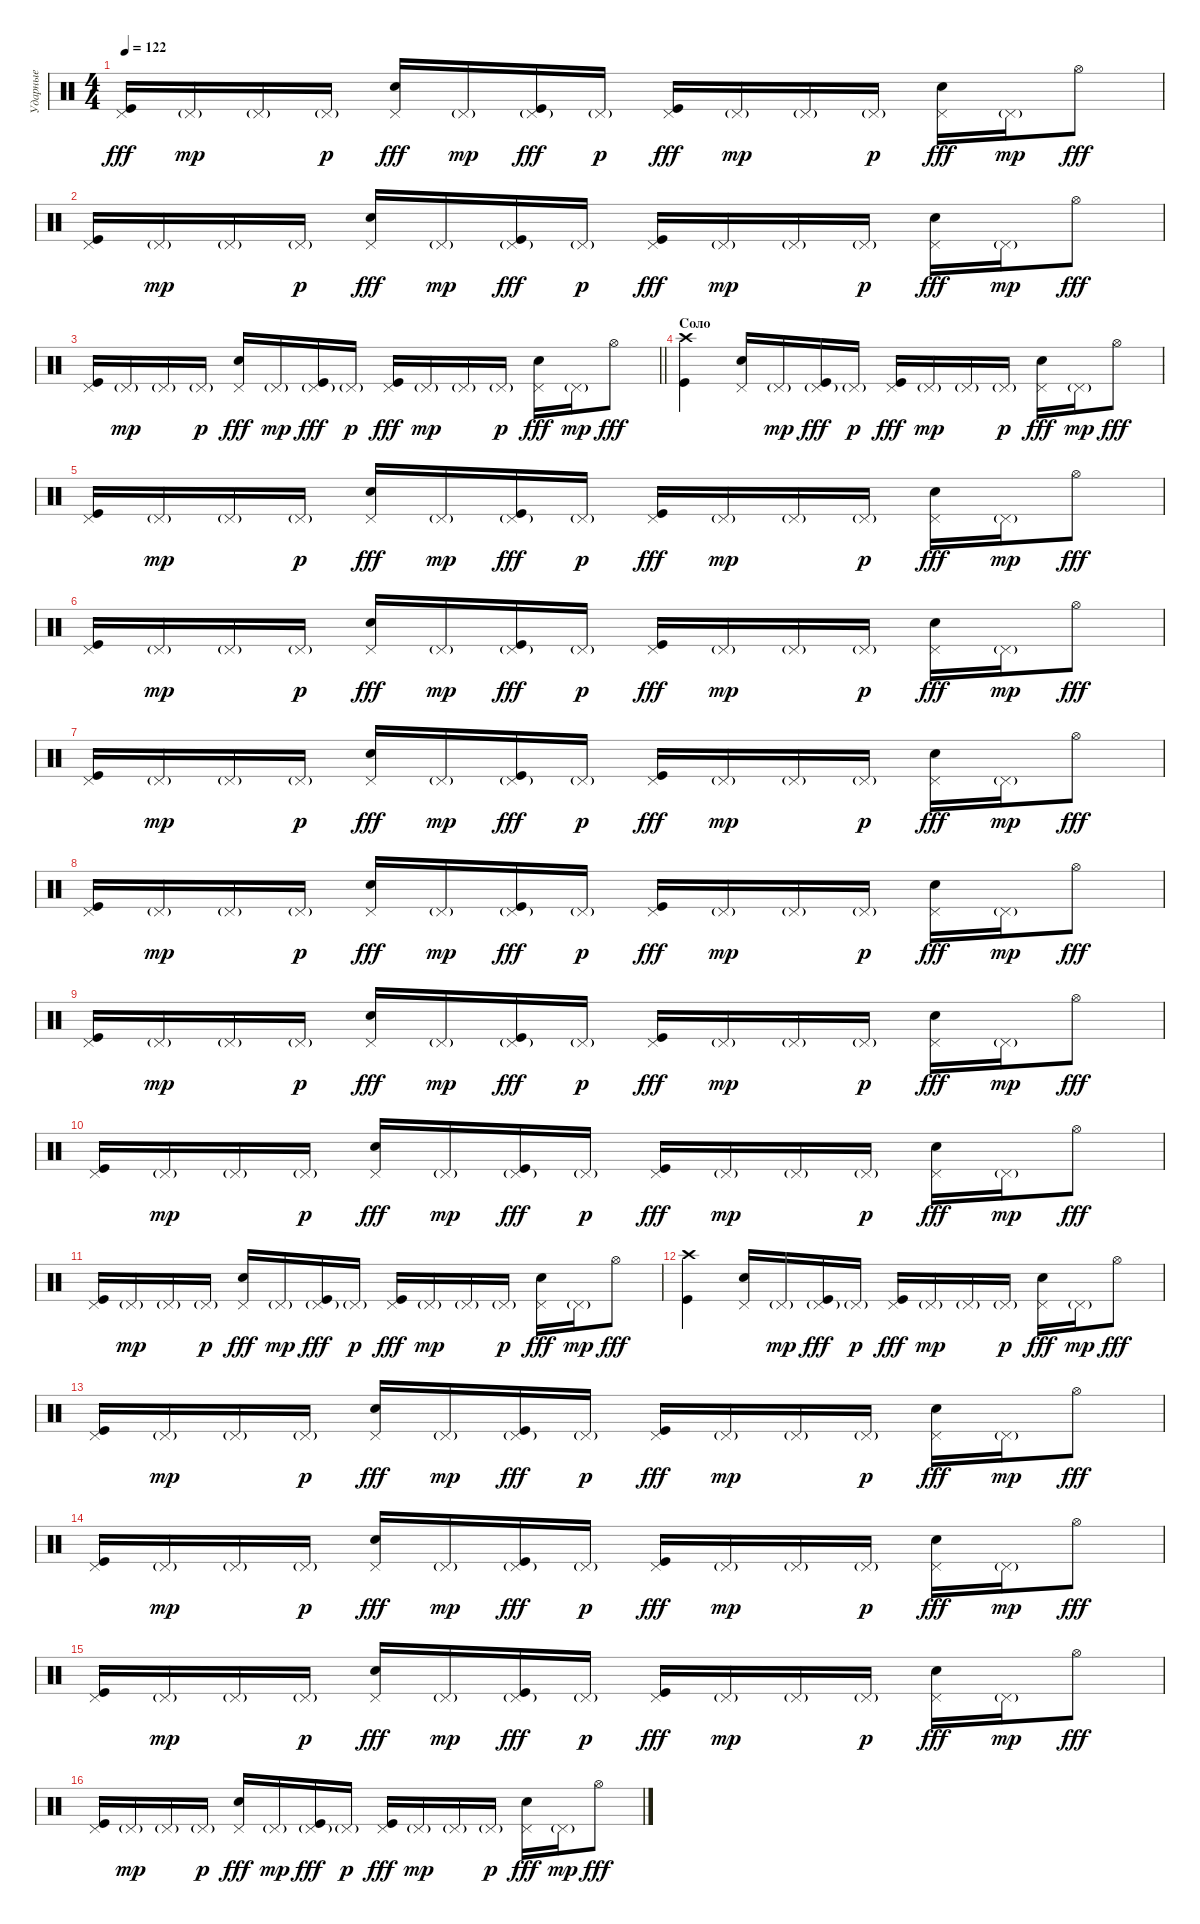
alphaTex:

\track ("Ударные" "Ударные") {instrument percussion}
\staff {score}
\articulation defaults
\ts (4 4)
\tempo 122
\clef neutral
\ks c
("Pedal Hi-Hat (hit)" "Kick (hit)").16{dy fff} "Pedal Hi-Hat (hit)"{g}.16{dy mp} "Pedal Hi-Hat (hit)"{g}.16 "Pedal Hi-Hat (hit)"{g}.16{dy p} ("Pedal Hi-Hat (hit)" "Electric Snare (hit)").16{dy fff} "Pedal Hi-Hat (hit)"{g}.16{dy mp} ("Pedal Hi-Hat (hit)"{g} "Kick (hit)").16{dy fff} "Pedal Hi-Hat (hit)"{g}.16{dy p} ("Pedal Hi-Hat (hit)" "Kick (hit)").16{dy fff} "Pedal Hi-Hat (hit)"{g}.16{dy mp} "Pedal Hi-Hat (hit)"{g}.16 "Pedal Hi-Hat (hit)"{g}.16{dy p} ("Pedal Hi-Hat (hit)" "Electric Snare (hit)").16{dy fff} "Pedal Hi-Hat (hit)"{g}.16{dy mp} "Hi-Hat (open)".8{dy fff} |
("Pedal Hi-Hat (hit)" "Kick (hit)").16 "Pedal Hi-Hat (hit)"{g}.16{dy mp} "Pedal Hi-Hat (hit)"{g}.16 "Pedal Hi-Hat (hit)"{g}.16{dy p} ("Pedal Hi-Hat (hit)" "Electric Snare (hit)").16{dy fff} "Pedal Hi-Hat (hit)"{g}.16{dy mp} ("Pedal Hi-Hat (hit)"{g} "Kick (hit)").16{dy fff} "Pedal Hi-Hat (hit)"{g}.16{dy p} ("Pedal Hi-Hat (hit)" "Kick (hit)").16{dy fff} "Pedal Hi-Hat (hit)"{g}.16{dy mp} "Pedal Hi-Hat (hit)"{g}.16 "Pedal Hi-Hat (hit)"{g}.16{dy p} ("Pedal Hi-Hat (hit)" "Electric Snare (hit)").16{dy fff} "Pedal Hi-Hat (hit)"{g}.16{dy mp} "Hi-Hat (open)".8{dy fff} |
\barLineRight lightlight
("Pedal Hi-Hat (hit)" "Kick (hit)").16 "Pedal Hi-Hat (hit)"{g}.16{dy mp} "Pedal Hi-Hat (hit)"{g}.16 "Pedal Hi-Hat (hit)"{g}.16{dy p} ("Pedal Hi-Hat (hit)" "Electric Snare (hit)").16{dy fff} "Pedal Hi-Hat (hit)"{g}.16{dy mp} ("Pedal Hi-Hat (hit)"{g} "Kick (hit)").16{dy fff} "Pedal Hi-Hat (hit)"{g}.16{dy p} ("Pedal Hi-Hat (hit)" "Kick (hit)").16{dy fff} "Pedal Hi-Hat (hit)"{g}.16{dy mp} "Pedal Hi-Hat (hit)"{g}.16 "Pedal Hi-Hat (hit)"{g}.16{dy p} ("Pedal Hi-Hat (hit)" "Electric Snare (hit)").16{dy fff} "Pedal Hi-Hat (hit)"{g}.16{dy mp} "Hi-Hat (open)".8{dy fff} |
\section ("" "Соло")
("Crash high (hit)" "Kick (hit)").4 ("Pedal Hi-Hat (hit)" "Electric Snare (hit)").16 "Pedal Hi-Hat (hit)"{g}.16{dy mp} ("Pedal Hi-Hat (hit)"{g} "Kick (hit)").16{dy fff} "Pedal Hi-Hat (hit)"{g}.16{dy p} ("Pedal Hi-Hat (hit)" "Kick (hit)").16{dy fff} "Pedal Hi-Hat (hit)"{g}.16{dy mp} "Pedal Hi-Hat (hit)"{g}.16 "Pedal Hi-Hat (hit)"{g}.16{dy p} ("Pedal Hi-Hat (hit)" "Electric Snare (hit)").16{dy fff} "Pedal Hi-Hat (hit)"{g}.16{dy mp} "Hi-Hat (open)".8{dy fff} |
("Pedal Hi-Hat (hit)" "Kick (hit)").16 "Pedal Hi-Hat (hit)"{g}.16{dy mp} "Pedal Hi-Hat (hit)"{g}.16 "Pedal Hi-Hat (hit)"{g}.16{dy p} ("Pedal Hi-Hat (hit)" "Electric Snare (hit)").16{dy fff} "Pedal Hi-Hat (hit)"{g}.16{dy mp} ("Pedal Hi-Hat (hit)"{g} "Kick (hit)").16{dy fff} "Pedal Hi-Hat (hit)"{g}.16{dy p} ("Pedal Hi-Hat (hit)" "Kick (hit)").16{dy fff} "Pedal Hi-Hat (hit)"{g}.16{dy mp} "Pedal Hi-Hat (hit)"{g}.16 "Pedal Hi-Hat (hit)"{g}.16{dy p} ("Pedal Hi-Hat (hit)" "Electric Snare (hit)").16{dy fff} "Pedal Hi-Hat (hit)"{g}.16{dy mp} "Hi-Hat (open)".8{dy fff} |
("Pedal Hi-Hat (hit)" "Kick (hit)").16 "Pedal Hi-Hat (hit)"{g}.16{dy mp} "Pedal Hi-Hat (hit)"{g}.16 "Pedal Hi-Hat (hit)"{g}.16{dy p} ("Pedal Hi-Hat (hit)" "Electric Snare (hit)").16{dy fff} "Pedal Hi-Hat (hit)"{g}.16{dy mp} ("Pedal Hi-Hat (hit)"{g} "Kick (hit)").16{dy fff} "Pedal Hi-Hat (hit)"{g}.16{dy p} ("Pedal Hi-Hat (hit)" "Kick (hit)").16{dy fff} "Pedal Hi-Hat (hit)"{g}.16{dy mp} "Pedal Hi-Hat (hit)"{g}.16 "Pedal Hi-Hat (hit)"{g}.16{dy p} ("Pedal Hi-Hat (hit)" "Electric Snare (hit)").16{dy fff} "Pedal Hi-Hat (hit)"{g}.16{dy mp} "Hi-Hat (open)".8{dy fff} |
("Pedal Hi-Hat (hit)" "Kick (hit)").16 "Pedal Hi-Hat (hit)"{g}.16{dy mp} "Pedal Hi-Hat (hit)"{g}.16 "Pedal Hi-Hat (hit)"{g}.16{dy p} ("Pedal Hi-Hat (hit)" "Electric Snare (hit)").16{dy fff} "Pedal Hi-Hat (hit)"{g}.16{dy mp} ("Pedal Hi-Hat (hit)"{g} "Kick (hit)").16{dy fff} "Pedal Hi-Hat (hit)"{g}.16{dy p} ("Pedal Hi-Hat (hit)" "Kick (hit)").16{dy fff} "Pedal Hi-Hat (hit)"{g}.16{dy mp} "Pedal Hi-Hat (hit)"{g}.16 "Pedal Hi-Hat (hit)"{g}.16{dy p} ("Pedal Hi-Hat (hit)" "Electric Snare (hit)").16{dy fff} "Pedal Hi-Hat (hit)"{g}.16{dy mp} "Hi-Hat (open)".8{dy fff} |
("Pedal Hi-Hat (hit)" "Kick (hit)").16 "Pedal Hi-Hat (hit)"{g}.16{dy mp} "Pedal Hi-Hat (hit)"{g}.16 "Pedal Hi-Hat (hit)"{g}.16{dy p} ("Pedal Hi-Hat (hit)" "Electric Snare (hit)").16{dy fff} "Pedal Hi-Hat (hit)"{g}.16{dy mp} ("Pedal Hi-Hat (hit)"{g} "Kick (hit)").16{dy fff} "Pedal Hi-Hat (hit)"{g}.16{dy p} ("Pedal Hi-Hat (hit)" "Kick (hit)").16{dy fff} "Pedal Hi-Hat (hit)"{g}.16{dy mp} "Pedal Hi-Hat (hit)"{g}.16 "Pedal Hi-Hat (hit)"{g}.16{dy p} ("Pedal Hi-Hat (hit)" "Electric Snare (hit)").16{dy fff} "Pedal Hi-Hat (hit)"{g}.16{dy mp} "Hi-Hat (open)".8{dy fff} |
("Pedal Hi-Hat (hit)" "Kick (hit)").16 "Pedal Hi-Hat (hit)"{g}.16{dy mp} "Pedal Hi-Hat (hit)"{g}.16 "Pedal Hi-Hat (hit)"{g}.16{dy p} ("Pedal Hi-Hat (hit)" "Electric Snare (hit)").16{dy fff} "Pedal Hi-Hat (hit)"{g}.16{dy mp} ("Pedal Hi-Hat (hit)"{g} "Kick (hit)").16{dy fff} "Pedal Hi-Hat (hit)"{g}.16{dy p} ("Pedal Hi-Hat (hit)" "Kick (hit)").16{dy fff} "Pedal Hi-Hat (hit)"{g}.16{dy mp} "Pedal Hi-Hat (hit)"{g}.16 "Pedal Hi-Hat (hit)"{g}.16{dy p} ("Pedal Hi-Hat (hit)" "Electric Snare (hit)").16{dy fff} "Pedal Hi-Hat (hit)"{g}.16{dy mp} "Hi-Hat (open)".8{dy fff} |
("Pedal Hi-Hat (hit)" "Kick (hit)").16 "Pedal Hi-Hat (hit)"{g}.16{dy mp} "Pedal Hi-Hat (hit)"{g}.16 "Pedal Hi-Hat (hit)"{g}.16{dy p} ("Pedal Hi-Hat (hit)" "Electric Snare (hit)").16{dy fff} "Pedal Hi-Hat (hit)"{g}.16{dy mp} ("Pedal Hi-Hat (hit)"{g} "Kick (hit)").16{dy fff} "Pedal Hi-Hat (hit)"{g}.16{dy p} ("Pedal Hi-Hat (hit)" "Kick (hit)").16{dy fff} "Pedal Hi-Hat (hit)"{g}.16{dy mp} "Pedal Hi-Hat (hit)"{g}.16 "Pedal Hi-Hat (hit)"{g}.16{dy p} ("Pedal Hi-Hat (hit)" "Electric Snare (hit)").16{dy fff} "Pedal Hi-Hat (hit)"{g}.16{dy mp} "Hi-Hat (open)".8{dy fff} |
("Pedal Hi-Hat (hit)" "Kick (hit)").16 "Pedal Hi-Hat (hit)"{g}.16{dy mp} "Pedal Hi-Hat (hit)"{g}.16 "Pedal Hi-Hat (hit)"{g}.16{dy p} ("Pedal Hi-Hat (hit)" "Electric Snare (hit)").16{dy fff} "Pedal Hi-Hat (hit)"{g}.16{dy mp} ("Pedal Hi-Hat (hit)"{g} "Kick (hit)").16{dy fff} "Pedal Hi-Hat (hit)"{g}.16{dy p} ("Pedal Hi-Hat (hit)" "Kick (hit)").16{dy fff} "Pedal Hi-Hat (hit)"{g}.16{dy mp} "Pedal Hi-Hat (hit)"{g}.16 "Pedal Hi-Hat (hit)"{g}.16{dy p} ("Pedal Hi-Hat (hit)" "Electric Snare (hit)").16{dy fff} "Pedal Hi-Hat (hit)"{g}.16{dy mp} "Hi-Hat (open)".8{dy fff} |
("Crash high (hit)" "Kick (hit)").4 ("Pedal Hi-Hat (hit)" "Electric Snare (hit)").16 "Pedal Hi-Hat (hit)"{g}.16{dy mp} ("Pedal Hi-Hat (hit)"{g} "Kick (hit)").16{dy fff} "Pedal Hi-Hat (hit)"{g}.16{dy p} ("Pedal Hi-Hat (hit)" "Kick (hit)").16{dy fff} "Pedal Hi-Hat (hit)"{g}.16{dy mp} "Pedal Hi-Hat (hit)"{g}.16 "Pedal Hi-Hat (hit)"{g}.16{dy p} ("Pedal Hi-Hat (hit)" "Electric Snare (hit)").16{dy fff} "Pedal Hi-Hat (hit)"{g}.16{dy mp} "Hi-Hat (open)".8{dy fff} |
("Pedal Hi-Hat (hit)" "Kick (hit)").16 "Pedal Hi-Hat (hit)"{g}.16{dy mp} "Pedal Hi-Hat (hit)"{g}.16 "Pedal Hi-Hat (hit)"{g}.16{dy p} ("Pedal Hi-Hat (hit)" "Electric Snare (hit)").16{dy fff} "Pedal Hi-Hat (hit)"{g}.16{dy mp} ("Pedal Hi-Hat (hit)"{g} "Kick (hit)").16{dy fff} "Pedal Hi-Hat (hit)"{g}.16{dy p} ("Pedal Hi-Hat (hit)" "Kick (hit)").16{dy fff} "Pedal Hi-Hat (hit)"{g}.16{dy mp} "Pedal Hi-Hat (hit)"{g}.16 "Pedal Hi-Hat (hit)"{g}.16{dy p} ("Pedal Hi-Hat (hit)" "Electric Snare (hit)").16{dy fff} "Pedal Hi-Hat (hit)"{g}.16{dy mp} "Hi-Hat (open)".8{dy fff} |
("Pedal Hi-Hat (hit)" "Kick (hit)").16 "Pedal Hi-Hat (hit)"{g}.16{dy mp} "Pedal Hi-Hat (hit)"{g}.16 "Pedal Hi-Hat (hit)"{g}.16{dy p} ("Pedal Hi-Hat (hit)" "Electric Snare (hit)").16{dy fff} "Pedal Hi-Hat (hit)"{g}.16{dy mp} ("Pedal Hi-Hat (hit)"{g} "Kick (hit)").16{dy fff} "Pedal Hi-Hat (hit)"{g}.16{dy p} ("Pedal Hi-Hat (hit)" "Kick (hit)").16{dy fff} "Pedal Hi-Hat (hit)"{g}.16{dy mp} "Pedal Hi-Hat (hit)"{g}.16 "Pedal Hi-Hat (hit)"{g}.16{dy p} ("Pedal Hi-Hat (hit)" "Electric Snare (hit)").16{dy fff} "Pedal Hi-Hat (hit)"{g}.16{dy mp} "Hi-Hat (open)".8{dy fff} |
("Pedal Hi-Hat (hit)" "Kick (hit)").16 "Pedal Hi-Hat (hit)"{g}.16{dy mp} "Pedal Hi-Hat (hit)"{g}.16 "Pedal Hi-Hat (hit)"{g}.16{dy p} ("Pedal Hi-Hat (hit)" "Electric Snare (hit)").16{dy fff} "Pedal Hi-Hat (hit)"{g}.16{dy mp} ("Pedal Hi-Hat (hit)"{g} "Kick (hit)").16{dy fff} "Pedal Hi-Hat (hit)"{g}.16{dy p} ("Pedal Hi-Hat (hit)" "Kick (hit)").16{dy fff} "Pedal Hi-Hat (hit)"{g}.16{dy mp} "Pedal Hi-Hat (hit)"{g}.16 "Pedal Hi-Hat (hit)"{g}.16{dy p} ("Pedal Hi-Hat (hit)" "Electric Snare (hit)").16{dy fff} "Pedal Hi-Hat (hit)"{g}.16{dy mp} "Hi-Hat (open)".8{dy fff} |
("Pedal Hi-Hat (hit)" "Kick (hit)").16 "Pedal Hi-Hat (hit)"{g}.16{dy mp} "Pedal Hi-Hat (hit)"{g}.16 "Pedal Hi-Hat (hit)"{g}.16{dy p} ("Pedal Hi-Hat (hit)" "Electric Snare (hit)").16{dy fff} "Pedal Hi-Hat (hit)"{g}.16{dy mp} ("Pedal Hi-Hat (hit)"{g} "Kick (hit)").16{dy fff} "Pedal Hi-Hat (hit)"{g}.16{dy p} ("Pedal Hi-Hat (hit)" "Kick (hit)").16{dy fff} "Pedal Hi-Hat (hit)"{g}.16{dy mp} "Pedal Hi-Hat (hit)"{g}.16 "Pedal Hi-Hat (hit)"{g}.16{dy p} ("Pedal Hi-Hat (hit)" "Electric Snare (hit)").16{dy fff} "Pedal Hi-Hat (hit)"{g}.16{dy mp} "Hi-Hat (open)".8{dy fff}
